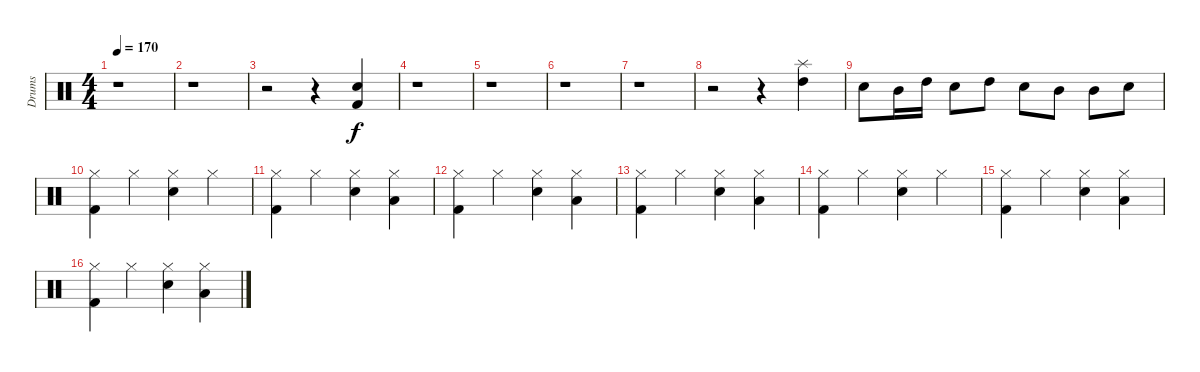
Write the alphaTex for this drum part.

\track ("Drums" "Drums") {instrument percussion}
\staff {score}
\articulation defaults
\ts (4 4)
\tempo 170
\clef neutral
\ks c
r.1{dy f} |
r.1 |
r.2 r.4 ("Kick (hit) 2" "Snare (hit) 2").4 |
r.1 |
r.1 |
r.1 |
r.1 |
r.2 r.4 ("Splash (hit)" "High Tom (hit)").4 |
"Snare (hit) 2".8 "Mid Tom (hit)".16 "High Tom (hit)".16 "Snare (hit) 2".8 "High Tom (hit)".8 "Snare (hit) 2".8 "Mid Tom (hit)".8 "Mid Tom (hit)".8 "Snare (hit) 2".8 |
("Kick (hit) 2" "Hi-Hat (closed)").4 "Hi-Hat (closed)".4 ("Snare (hit) 2" "Hi-Hat (closed)").4 "Hi-Hat (closed)".4 |
("Kick (hit) 2" "Hi-Hat (closed)").4 "Hi-Hat (closed)".4 ("Snare (hit) 2" "Hi-Hat (closed)").4 ("Low Tom (hit)" "Hi-Hat (closed)").4 |
("Kick (hit) 2" "Hi-Hat (closed)").4 "Hi-Hat (closed)".4 ("Snare (hit) 2" "Hi-Hat (closed)").4 ("Low Tom (hit)" "Hi-Hat (closed)").4 |
("Kick (hit) 2" "Hi-Hat (closed)").4 "Hi-Hat (closed)".4 ("Snare (hit) 2" "Hi-Hat (closed)").4 ("Low Tom (hit)" "Hi-Hat (closed)").4 |
("Kick (hit) 2" "Hi-Hat (closed)").4 "Hi-Hat (closed)".4 ("Snare (hit) 2" "Hi-Hat (closed)").4 "Hi-Hat (closed)".4 |
("Kick (hit) 2" "Hi-Hat (closed)").4 "Hi-Hat (closed)".4 ("Snare (hit) 2" "Hi-Hat (closed)").4 ("Low Tom (hit)" "Hi-Hat (closed)").4 |
("Kick (hit) 2" "Hi-Hat (closed)").4 "Hi-Hat (closed)".4 ("Snare (hit) 2" "Hi-Hat (closed)").4 ("Low Tom (hit)" "Hi-Hat (closed)").4
